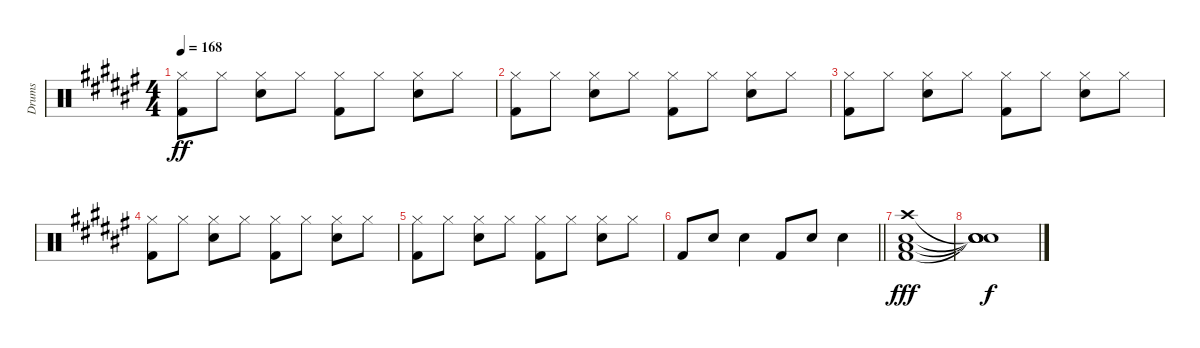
\track ("Drums" "Drums") {instrument percussion}
\staff {score}
\articulation defaults
\ts (4 4)
\tempo 168
\clef neutral
\ks f#
("Hi-Hat (closed)" "Kick (hit) 2").8{dy ff} "Hi-Hat (closed)".8 ("Hi-Hat (closed)" "Snare (hit) 2").8 "Hi-Hat (closed)".8 ("Hi-Hat (closed)" "Kick (hit) 2").8 "Hi-Hat (closed)".8 ("Hi-Hat (closed)" "Snare (hit) 2").8 "Hi-Hat (closed)".8 |
("Hi-Hat (closed)" "Kick (hit) 2").8 "Hi-Hat (closed)".8 ("Hi-Hat (closed)" "Snare (hit) 2").8 "Hi-Hat (closed)".8 ("Hi-Hat (closed)" "Kick (hit) 2").8 "Hi-Hat (closed)".8 ("Hi-Hat (closed)" "Snare (hit) 2").8 "Hi-Hat (closed)".8 |
("Hi-Hat (closed)" "Kick (hit) 2").8 "Hi-Hat (closed)".8 ("Hi-Hat (closed)" "Snare (hit) 2").8 "Hi-Hat (closed)".8 ("Hi-Hat (closed)" "Kick (hit) 2").8 "Hi-Hat (closed)".8 ("Hi-Hat (closed)" "Snare (hit) 2").8 "Hi-Hat (closed)".8 |
("Hi-Hat (closed)" "Kick (hit) 2").8 "Hi-Hat (closed)".8 ("Hi-Hat (closed)" "Snare (hit) 2").8 "Hi-Hat (closed)".8 ("Hi-Hat (closed)" "Kick (hit) 2").8 "Hi-Hat (closed)".8 ("Hi-Hat (closed)" "Snare (hit) 2").8 "Hi-Hat (closed)".8 |
("Hi-Hat (closed)" "Kick (hit) 2").8 "Hi-Hat (closed)".8 ("Hi-Hat (closed)" "Snare (hit) 2").8 "Hi-Hat (closed)".8 ("Hi-Hat (closed)" "Kick (hit) 2").8 "Hi-Hat (closed)".8 ("Hi-Hat (closed)" "Snare (hit) 2").8 "Hi-Hat (closed)".8 |
\barLineRight lightlight "Kick (hit) 2".8 "Snare (hit) 2".8 "Snare (hit) 2".4 "Kick (hit) 2".8 "Snare (hit) 2".8 "Snare (hit) 2".4
|
("Crash high (hit)" "Snare (hit) 2" "Kick (hit) 2" "Low Floor Tom (hit)").1{dy fff} |
("Snare (hit)"{t} "Snare (hit)"{t} "Snare (hit)"{t} "Snare (hit)"{t}).1{dy f}
